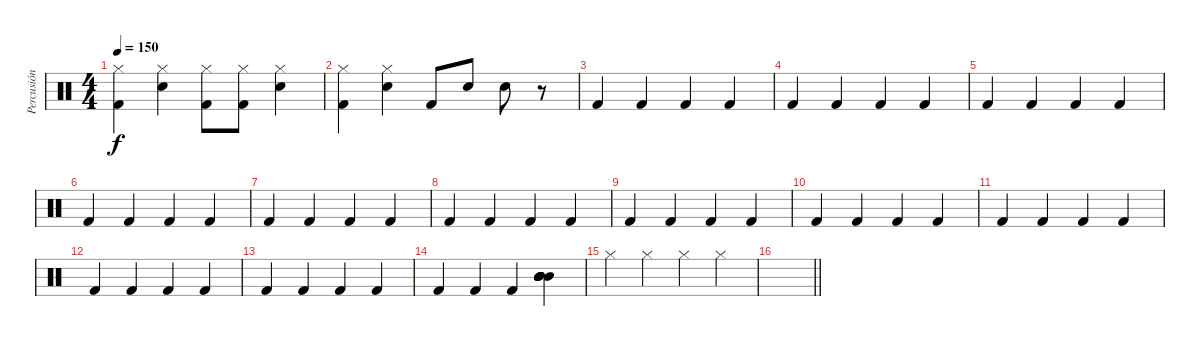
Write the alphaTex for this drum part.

\track ("Percusión" "Percusión") {instrument percussion}
\staff {score}
\articulation defaults
\ts (4 4)
\tempo 150
\clef neutral
\ks c
("Hi-Hat (closed)" "Kick (hit) 2").4{dy f} ("Hi-Hat (closed)" "Snare (hit) 2").4 ("Hi-Hat (closed)" "Kick (hit) 2").8 ("Hi-Hat (closed)" "Kick (hit) 2").8 ("Hi-Hat (closed)" "Snare (hit) 2").4 |
("Hi-Hat (closed)" "Kick (hit) 2").4 ("Hi-Hat (closed)" "Snare (hit) 2").4 "Kick (hit) 2".8 "Snare (hit) 2".8 "Snare (hit) 2".8 r.8 |
"Kick (hit) 2".4 "Kick (hit) 2".4 "Kick (hit) 2".4 "Kick (hit) 2".4 |
"Kick (hit) 2".4 "Kick (hit) 2".4 "Kick (hit) 2".4 "Kick (hit) 2".4 |
"Kick (hit) 2".4 "Kick (hit) 2".4 "Kick (hit) 2".4 "Kick (hit) 2".4 |
"Kick (hit) 2".4 "Kick (hit) 2".4 "Kick (hit) 2".4 "Kick (hit) 2".4 |
"Kick (hit) 2".4 "Kick (hit) 2".4 "Kick (hit) 2".4 "Kick (hit) 2".4 |
"Kick (hit) 2".4 "Kick (hit) 2".4 "Kick (hit) 2".4 "Kick (hit) 2".4 |
"Kick (hit) 2".4 "Kick (hit) 2".4 "Kick (hit) 2".4 "Kick (hit) 2".4 |
"Kick (hit) 2".4 "Kick (hit) 2".4 "Kick (hit) 2".4 "Kick (hit) 2".4 |
"Kick (hit) 2".4 "Kick (hit) 2".4 "Kick (hit) 2".4 "Kick (hit) 2".4 |
"Kick (hit) 2".4 "Kick (hit) 2".4 "Kick (hit) 2".4 "Kick (hit) 2".4 |
"Kick (hit) 2".4 "Kick (hit) 2".4 "Kick (hit) 2".4 "Kick (hit) 2".4 |
"Kick (hit) 2".4 "Kick (hit) 2".4 "Kick (hit) 2".4 ("Mid Tom (hit)" "Mid Tom (hit)" "Mid Tom (hit)" "Mid Tom (hit)" "Mid Tom (hit)" "Mid Tom (hit)").4 |
"Hi-Hat (closed)".4 "Hi-Hat (closed)".4 "Hi-Hat (closed)".4 "Hi-Hat (closed)".4 |
\barLineRight lightlight
